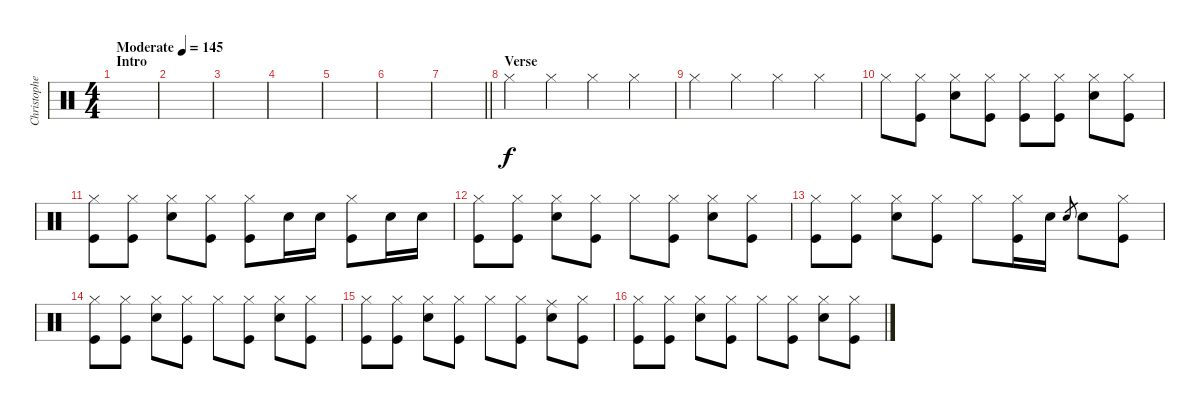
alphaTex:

\track ("Christopher - Drums" "Christophe") {instrument percussion}
\staff {score}
\articulation defaults
\ts (4 4)
\section ("" "Intro")
\tempo (145 "Moderate")
\clef neutral
\ks c
|
|
|
|
|
|
\barLineRight lightlight
|
\section ("" "Verse")
"Hi-Hat (closed)".4 "Hi-Hat (closed)".4 "Hi-Hat (closed)".4 "Hi-Hat (closed)".4 |
"Hi-Hat (closed)".4 "Hi-Hat (closed)".4 "Hi-Hat (closed)".4 "Hi-Hat (closed)".4 |
"Hi-Hat (closed)".8 ("Hi-Hat (closed)" "Kick (hit)").8 ("Hi-Hat (closed)" "Snare (hit) 2").8 ("Hi-Hat (closed)" "Kick (hit)").8 ("Hi-Hat (closed)" "Kick (hit)").8 ("Hi-Hat (closed)" "Kick (hit)").8 ("Hi-Hat (closed)" "Snare (hit) 2").8 ("Hi-Hat (closed)" "Kick (hit)").8 |
("Hi-Hat (closed)" "Kick (hit)").8 ("Hi-Hat (closed)" "Kick (hit)").8 ("Hi-Hat (closed)" "Snare (hit) 2").8 ("Hi-Hat (closed)" "Kick (hit)").8 ("Hi-Hat (closed)" "Kick (hit)").8 "Snare (hit) 2".16 "Snare (hit) 2".16 ("Hi-Hat (closed)" "Kick (hit)").8 "Snare (hit) 2".16 "Snare (hit) 2".16 |
("Hi-Hat (closed)" "Kick (hit)").8 ("Hi-Hat (closed)" "Kick (hit)").8 ("Hi-Hat (closed)" "Snare (hit) 2").8 ("Hi-Hat (closed)" "Kick (hit)").8 "Hi-Hat (closed)".8 ("Hi-Hat (closed)" "Kick (hit)").8 ("Hi-Hat (closed)" "Snare (hit) 2").8 ("Hi-Hat (closed)" "Kick (hit)").8 |
("Hi-Hat (closed)" "Kick (hit)").8 ("Hi-Hat (closed)" "Kick (hit)").8 ("Hi-Hat (closed)" "Snare (hit) 2").8 ("Hi-Hat (closed)" "Kick (hit)").8 "Hi-Hat (closed)".8 ("Hi-Hat (closed)" "Kick (hit)").16 "Snare (hit) 2".16 "Snare (hit) 2".8{gr} "Snare (hit) 2".8 ("Hi-Hat (closed)" "Kick (hit)").8 |
("Hi-Hat (closed)" "Kick (hit)").8 ("Hi-Hat (closed)" "Kick (hit)").8 ("Hi-Hat (closed)" "Snare (hit) 2").8 ("Hi-Hat (closed)" "Kick (hit)").8 "Hi-Hat (closed)".8 ("Hi-Hat (closed)" "Kick (hit)").8 ("Hi-Hat (closed)" "Snare (hit) 2").8 ("Hi-Hat (closed)" "Kick (hit)").8 |
("Hi-Hat (closed)" "Kick (hit)").8 ("Hi-Hat (closed)" "Kick (hit)").8 ("Hi-Hat (closed)" "Snare (hit) 2").8 ("Hi-Hat (closed)" "Kick (hit)").8 "Hi-Hat (closed)".8 ("Hi-Hat (closed)" "Kick (hit)").8 ("Ride (middle)" "Snare (hit) 2").8 ("Hi-Hat (closed)" "Kick (hit)").8 |
("Hi-Hat (closed)" "Kick (hit)").8 ("Hi-Hat (closed)" "Kick (hit)").8 ("Hi-Hat (closed)" "Snare (hit) 2").8 ("Hi-Hat (closed)" "Kick (hit)").8 "Hi-Hat (closed)".8 ("Hi-Hat (closed)" "Kick (hit)").8 ("Hi-Hat (closed)" "Snare (hit) 2").8 ("Hi-Hat (closed)" "Kick (hit)").8
